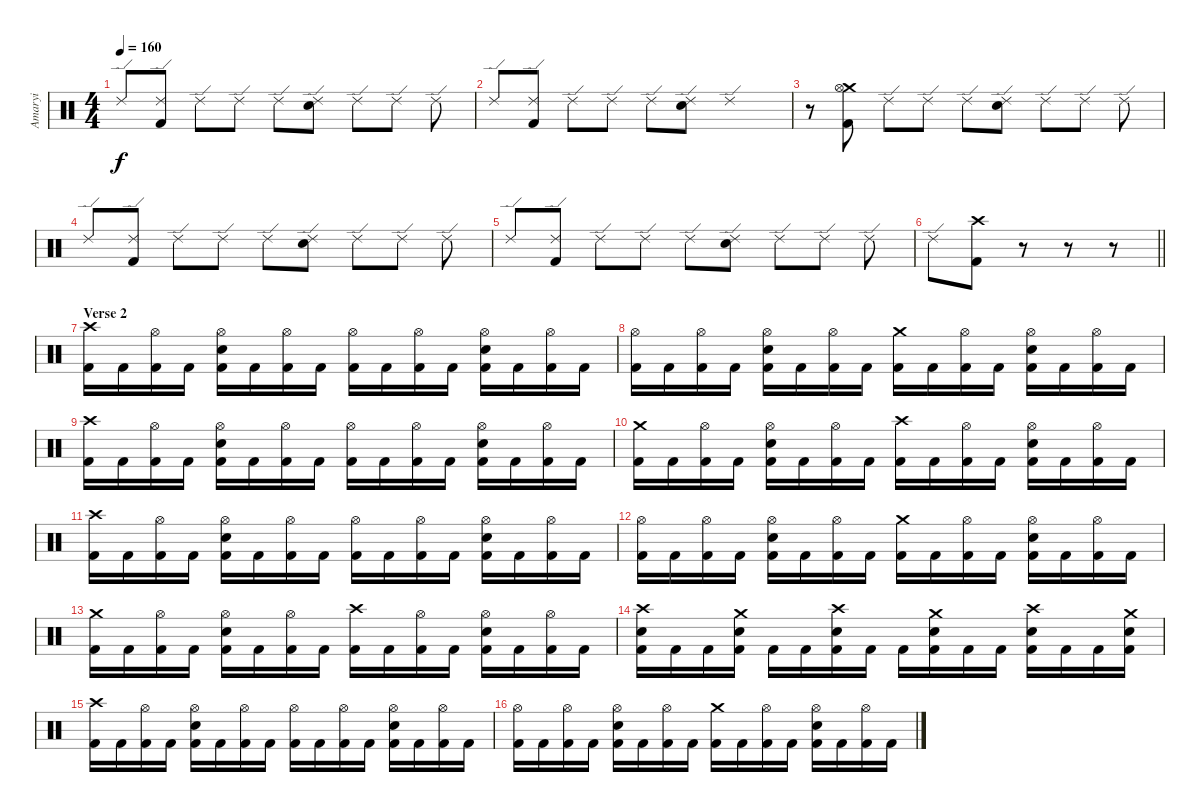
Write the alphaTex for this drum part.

\track ("Amaryi" "Amaryi") {instrument percussion}
\staff {score}
\articulation defaults
\ts (4 4)
\tempo 160
\clef neutral
\ks c "Ride (edge) 2".8{dy f}
("Ride (edge) 2" "Kick (hit) 2").8 "Ride (edge) 2".8 "Ride (edge) 2".8 "Ride (edge) 2".8 ("Ride (edge) 2" "Electric Snare (hit)").8 "Ride (edge) 2".8 "Ride (edge) 2".8 "Ride (edge) 2".8 |
"Ride (edge) 2".8 ("Ride (edge) 2" "Kick (hit) 2").8 "Ride (edge) 2".8 "Ride (edge) 2".8 "Ride (edge) 2".8 ("Ride (edge) 2" "Electric Snare (hit)").8 "Ride (edge) 2".1 |
r.8 ("Crash medium (hit)" "Hi-Hat (open)" "Kick (hit) 2").8 "Ride (edge) 2".8 "Ride (edge) 2".8 "Ride (edge) 2".8 ("Ride (edge) 2" "Electric Snare (hit)").8 "Ride (edge) 2".8 "Ride (edge) 2".8 "Ride (edge) 2".8 |
"Ride (edge) 2".8 ("Ride (edge) 2" "Kick (hit) 2").8 "Ride (edge) 2".8 "Ride (edge) 2".8 "Ride (edge) 2".8 ("Ride (edge) 2" "Electric Snare (hit)").8 "Ride (edge) 2".8 "Ride (edge) 2".8 "Ride (edge) 2".8 |
"Ride (edge) 2".8 ("Ride (edge) 2" "Kick (hit) 2").8 "Ride (edge) 2".8 "Ride (edge) 2".8 "Ride (edge) 2".8 ("Ride (edge) 2" "Electric Snare (hit)").8 "Ride (edge) 2".8 "Ride (edge) 2".8 "Ride (edge) 2".8 |
\barLineRight lightlight "Ride (edge) 2".8
("Crash high (hit)" "Kick (hit) 2").8 r.8 r.8 r.8 |
\section ("" "Verse 2")
("Crash high (hit)" "Kick (hit) 2").16 "Kick (hit) 2".16 ("Hi-Hat (open)" "Kick (hit) 2").16 "Kick (hit) 2".16 ("Hi-Hat (open)" "Electric Snare (hit)" "Kick (hit) 2").16 "Kick (hit) 2".16 ("Hi-Hat (open)" "Kick (hit) 2").16 "Kick (hit) 2".16 ("Hi-Hat (open)" "Kick (hit) 2").16 "Kick (hit) 2".16 ("Hi-Hat (open)" "Kick (hit) 2").16 "Kick (hit) 2".16 ("Hi-Hat (open)" "Electric Snare (hit)" "Kick (hit) 2").16 "Kick (hit) 2".16 ("Hi-Hat (open)" "Kick (hit) 2").16 "Kick (hit) 2".16 |
("Hi-Hat (open)" "Kick (hit) 2").16 "Kick (hit) 2".16 ("Hi-Hat (open)" "Kick (hit) 2").16 "Kick (hit) 2".16 ("Hi-Hat (open)" "Electric Snare (hit)" "Kick (hit) 2").16 "Kick (hit) 2".16 ("Hi-Hat (open)" "Kick (hit) 2").16 "Kick (hit) 2".16 ("Crash medium (hit)" "Kick (hit) 2").16 "Kick (hit) 2".16 ("Hi-Hat (open)" "Kick (hit) 2").16 "Kick (hit) 2".16 ("Hi-Hat (open)" "Electric Snare (hit)" "Kick (hit) 2").16 "Kick (hit) 2".16 ("Hi-Hat (open)" "Kick (hit) 2").16 "Kick (hit) 2".16 |
("Crash high (hit)" "Kick (hit) 2").16 "Kick (hit) 2".16 ("Hi-Hat (open)" "Kick (hit) 2").16 "Kick (hit) 2".16 ("Hi-Hat (open)" "Electric Snare (hit)" "Kick (hit) 2").16 "Kick (hit) 2".16 ("Hi-Hat (open)" "Kick (hit) 2").16 "Kick (hit) 2".16 ("Hi-Hat (open)" "Kick (hit) 2").16 "Kick (hit) 2".16 ("Hi-Hat (open)" "Kick (hit) 2").16 "Kick (hit) 2".16 ("Hi-Hat (open)" "Electric Snare (hit)" "Kick (hit) 2").16 "Kick (hit) 2".16 ("Hi-Hat (open)" "Kick (hit) 2").16 "Kick (hit) 2".16 |
("Crash medium (hit)" "Kick (hit) 2").16 "Kick (hit) 2".16 ("Hi-Hat (open)" "Kick (hit) 2").16 "Kick (hit) 2".16 ("Hi-Hat (open)" "Electric Snare (hit)" "Kick (hit) 2").16 "Kick (hit) 2".16 ("Hi-Hat (open)" "Kick (hit) 2").16 "Kick (hit) 2".16 ("Crash high (hit)" "Kick (hit) 2").16 "Kick (hit) 2".16 ("Hi-Hat (open)" "Kick (hit) 2").16 "Kick (hit) 2".16 ("Hi-Hat (open)" "Electric Snare (hit)" "Kick (hit) 2").16 "Kick (hit) 2".16 ("Hi-Hat (open)" "Kick (hit) 2").16 "Kick (hit) 2".16 |
("Crash high (hit)" "Kick (hit) 2").16 "Kick (hit) 2".16 ("Hi-Hat (open)" "Kick (hit) 2").16 "Kick (hit) 2".16 ("Hi-Hat (open)" "Electric Snare (hit)" "Kick (hit) 2").16 "Kick (hit) 2".16 ("Hi-Hat (open)" "Kick (hit) 2").16 "Kick (hit) 2".16 ("Hi-Hat (open)" "Kick (hit) 2").16 "Kick (hit) 2".16 ("Hi-Hat (open)" "Kick (hit) 2").16 "Kick (hit) 2".16 ("Hi-Hat (open)" "Electric Snare (hit)" "Kick (hit) 2").16 "Kick (hit) 2".16 ("Hi-Hat (open)" "Kick (hit) 2").16 "Kick (hit) 2".16 |
("Hi-Hat (open)" "Kick (hit) 2").16 "Kick (hit) 2".16 ("Hi-Hat (open)" "Kick (hit) 2").16 "Kick (hit) 2".16 ("Hi-Hat (open)" "Electric Snare (hit)" "Kick (hit) 2").16 "Kick (hit) 2".16 ("Hi-Hat (open)" "Kick (hit) 2").16 "Kick (hit) 2".16 ("Crash medium (hit)" "Kick (hit) 2").16 "Kick (hit) 2".16 ("Hi-Hat (open)" "Kick (hit) 2").16 "Kick (hit) 2".16 ("Hi-Hat (open)" "Electric Snare (hit)" "Kick (hit) 2").16 "Kick (hit) 2".16 ("Hi-Hat (open)" "Kick (hit) 2").16 "Kick (hit) 2".16 |
("Crash medium (hit)" "Kick (hit) 2").16 "Kick (hit) 2".16 ("Hi-Hat (open)" "Kick (hit) 2").16 "Kick (hit) 2".16 ("Hi-Hat (open)" "Electric Snare (hit)" "Kick (hit) 2").16 "Kick (hit) 2".16 ("Hi-Hat (open)" "Kick (hit) 2").16 "Kick (hit) 2".16 ("Crash high (hit)" "Kick (hit) 2").16 "Kick (hit) 2".16 ("Hi-Hat (open)" "Kick (hit) 2").16 "Kick (hit) 2".16 ("Hi-Hat (open)" "Electric Snare (hit)" "Kick (hit) 2").16 "Kick (hit) 2".16 ("Hi-Hat (open)" "Kick (hit) 2").16 "Kick (hit) 2".16 |
("Crash high (hit)" "Electric Snare (hit)" "Kick (hit) 2").16 "Kick (hit) 2".16 "Kick (hit) 2".16 ("Crash medium (hit)" "Electric Snare (hit)" "Kick (hit) 2").16 "Kick (hit) 2".16 "Kick (hit) 2".16 ("Crash high (hit)" "Electric Snare (hit)" "Kick (hit) 2").16 "Kick (hit) 2".16 "Kick (hit) 2".16 ("Crash medium (hit)" "Electric Snare (hit)" "Kick (hit) 2").16 "Kick (hit) 2".16 "Kick (hit) 2".16 ("Crash high (hit)" "Electric Snare (hit)" "Kick (hit) 2").16 "Kick (hit) 2".16 "Kick (hit) 2".16 ("Crash medium (hit)" "Electric Snare (hit)" "Kick (hit) 2").16 |
("Crash high (hit)" "Kick (hit) 2").16 "Kick (hit) 2".16 ("Hi-Hat (open)" "Kick (hit) 2").16 "Kick (hit) 2".16 ("Hi-Hat (open)" "Electric Snare (hit)" "Kick (hit) 2").16 "Kick (hit) 2".16 ("Hi-Hat (open)" "Kick (hit) 2").16 "Kick (hit) 2".16 ("Hi-Hat (open)" "Kick (hit) 2").16 "Kick (hit) 2".16 ("Hi-Hat (open)" "Kick (hit) 2").16 "Kick (hit) 2".16 ("Hi-Hat (open)" "Electric Snare (hit)" "Kick (hit) 2").16 "Kick (hit) 2".16 ("Hi-Hat (open)" "Kick (hit) 2").16 "Kick (hit) 2".16 |
("Hi-Hat (open)" "Kick (hit) 2").16 "Kick (hit) 2".16 ("Hi-Hat (open)" "Kick (hit) 2").16 "Kick (hit) 2".16 ("Hi-Hat (open)" "Electric Snare (hit)" "Kick (hit) 2").16 "Kick (hit) 2".16 ("Hi-Hat (open)" "Kick (hit) 2").16 "Kick (hit) 2".16 ("Crash medium (hit)" "Kick (hit) 2").16 "Kick (hit) 2".16 ("Hi-Hat (open)" "Kick (hit) 2").16 "Kick (hit) 2".16 ("Hi-Hat (open)" "Electric Snare (hit)" "Kick (hit) 2").16 "Kick (hit) 2".16 ("Hi-Hat (open)" "Kick (hit) 2").16 "Kick (hit) 2".16
